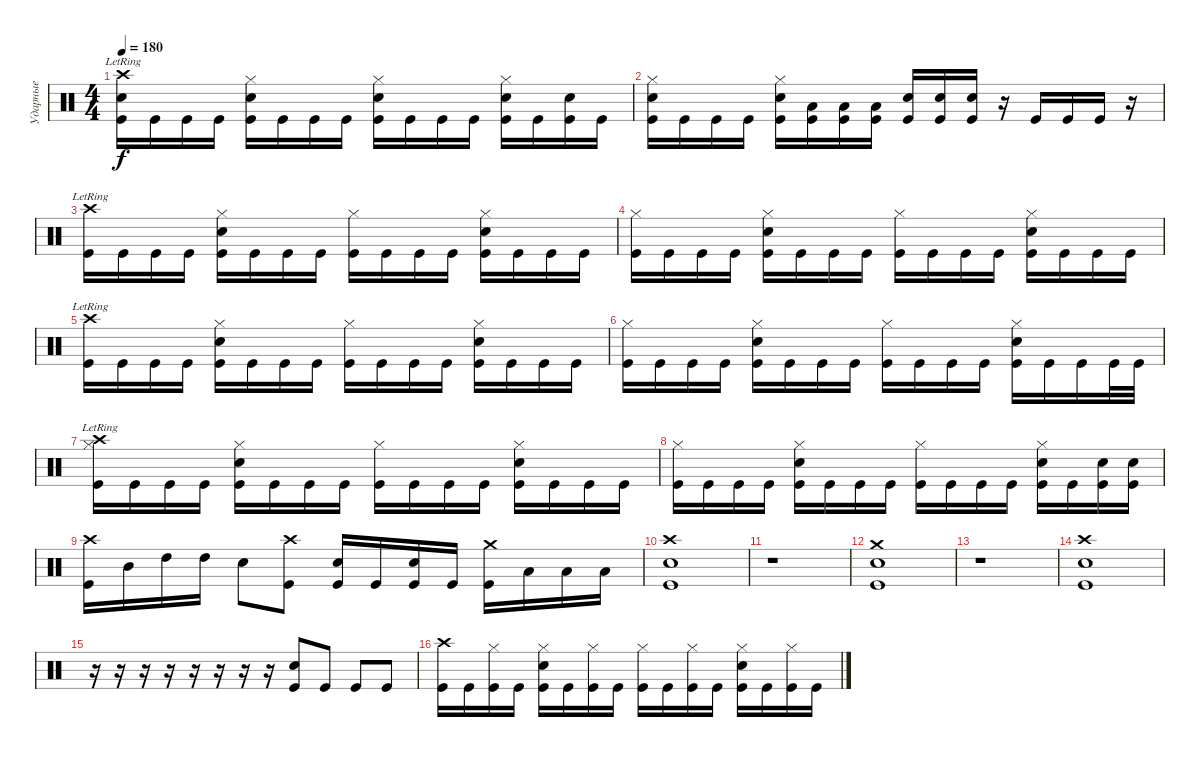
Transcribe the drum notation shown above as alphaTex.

\track ("Ударные" "Ударные") {instrument percussion}
\staff {score}
\articulation defaults
\ts (4 4)
\tempo 180
\clef neutral
\ks c
("Crash high (hit)"{lr} "Electric Snare (hit)" "Kick (hit)").16{dy f} "Kick (hit)".16 "Kick (hit)".16 "Kick (hit)".16 ("Hi-Hat (closed)" "Electric Snare (hit)" "Kick (hit)").16 "Kick (hit)".16 "Kick (hit)".16 "Kick (hit)".16 ("Hi-Hat (closed)" "Electric Snare (hit)" "Kick (hit)").16 "Kick (hit)".16 "Kick (hit)".16 "Kick (hit)".16 ("Hi-Hat (closed)" "Electric Snare (hit)" "Kick (hit)").16 "Kick (hit)".16 ("Electric Snare (hit)" "Kick (hit)").16 "Kick (hit)".16 |
("Hi-Hat (closed)" "Electric Snare (hit)" "Kick (hit)").16 "Kick (hit)".16 "Kick (hit)".16 "Kick (hit)".16 ("Hi-Hat (closed)" "Electric Snare (hit)" "Kick (hit)").16 ("Low Tom (hit)" "Kick (hit)").16 ("Low Tom (hit)" "Kick (hit)").16 ("Low Tom (hit)" "Kick (hit)").16 ("Electric Snare (hit)" "Kick (hit)").16 ("Electric Snare (hit)" "Kick (hit)").16 ("Electric Snare (hit)" "Kick (hit)").16 r.16 "Kick (hit)".16 "Kick (hit)".16 "Kick (hit)".16 r.16 |
("Crash high (hit)"{lr} "Kick (hit)").16 "Kick (hit)".16 "Kick (hit)".16 "Kick (hit)".16 ("Hi-Hat (closed)" "Electric Snare (hit)" "Kick (hit)").16 "Kick (hit)".16 "Kick (hit)".16 "Kick (hit)".16 ("Hi-Hat (closed)" "Kick (hit)").16 "Kick (hit)".16 "Kick (hit)".16 "Kick (hit)".16 ("Hi-Hat (closed)" "Electric Snare (hit)" "Kick (hit)").16 "Kick (hit)".16 "Kick (hit)".16 "Kick (hit)".16 |
("Hi-Hat (closed)" "Kick (hit)").16 "Kick (hit)".16 "Kick (hit)".16 "Kick (hit)".16 ("Hi-Hat (closed)" "Electric Snare (hit)" "Kick (hit)").16 "Kick (hit)".16 "Kick (hit)".16 "Kick (hit)".16 ("Hi-Hat (closed)" "Kick (hit)").16 "Kick (hit)".16 "Kick (hit)".16 "Kick (hit)".16 ("Hi-Hat (closed)" "Electric Snare (hit)" "Kick (hit)").16 "Kick (hit)".16 "Kick (hit)".16 "Kick (hit)".16 |
("Crash high (hit)"{lr} "Kick (hit)").16 "Kick (hit)".16 "Kick (hit)".16 "Kick (hit)".16 ("Hi-Hat (closed)" "Electric Snare (hit)" "Kick (hit)").16 "Kick (hit)".16 "Kick (hit)".16 "Kick (hit)".16 ("Hi-Hat (closed)" "Kick (hit)").16 "Kick (hit)".16 "Kick (hit)".16 "Kick (hit)".16 ("Hi-Hat (closed)" "Electric Snare (hit)" "Kick (hit)").16 "Kick (hit)".16 "Kick (hit)".16 "Kick (hit)".16 |
("Hi-Hat (closed)" "Kick (hit)").16 "Kick (hit)".16 "Kick (hit)".16 "Kick (hit)".16 ("Hi-Hat (closed)" "Electric Snare (hit)" "Kick (hit)").16 "Kick (hit)".16 "Kick (hit)".16 "Kick (hit)".16 ("Hi-Hat (closed)" "Kick (hit)").16 "Kick (hit)".16 "Kick (hit)".16 "Kick (hit)".16 ("Hi-Hat (closed)" "Electric Snare (hit)" "Kick (hit)").16 "Kick (hit)".16 "Kick (hit)".16 "Kick (hit)".32 "Kick (hit)".32 |
("Crash high (hit)"{lr} "Hi-Hat (closed)" "Kick (hit)").16 "Kick (hit)".16 "Kick (hit)".16 "Kick (hit)".16 ("Hi-Hat (closed)" "Electric Snare (hit)" "Kick (hit)").16 "Kick (hit)".16 "Kick (hit)".16 "Kick (hit)".16 ("Hi-Hat (closed)" "Kick (hit)").16 "Kick (hit)".16 "Kick (hit)".16 "Kick (hit)".16 ("Hi-Hat (closed)" "Electric Snare (hit)" "Kick (hit)").16 "Kick (hit)".16 "Kick (hit)".16 "Kick (hit)".16 |
("Hi-Hat (closed)" "Kick (hit)").16 "Kick (hit)".16 "Kick (hit)".16 "Kick (hit)".16 ("Hi-Hat (closed)" "Electric Snare (hit)" "Kick (hit)").16 "Kick (hit)".16 "Kick (hit)".16 "Kick (hit)".16 ("Hi-Hat (closed)" "Kick (hit)").16 "Kick (hit)".16 "Kick (hit)".16 "Kick (hit)".16 ("Hi-Hat (closed)" "Electric Snare (hit)" "Kick (hit)").16 "Kick (hit)".16 ("Electric Snare (hit)" "Kick (hit)").16 ("Electric Snare (hit)" "Kick (hit)").16 |
("Crash high (hit)" "Kick (hit)").16 "Mid Tom (hit)".16 "High Tom (hit)".16 "High Tom (hit)".16 "Electric Snare (hit)".8 ("Crash high (hit)" "Kick (hit)").8 ("Electric Snare (hit)" "Kick (hit)").16 "Kick (hit)".16 ("Electric Snare (hit)" "Kick (hit)").16 "Kick (hit)".16 ("Crash medium (hit)" "Kick (hit)").16 "Low Tom (hit)".16 "Low Tom (hit)".16 "Low Tom (hit)".16 |
("Crash high (hit)" "Electric Snare (hit)" "Kick (hit)").1 |
r.1 |
("Crash medium (hit)" "Electric Snare (hit)" "Kick (hit)").1 |
r.1 |
("Crash high (hit)" "Electric Snare (hit)" "Kick (hit)").1 |
r.16 r.16 r.16 r.16 r.16 r.16 r.16 r.16 ("Electric Snare (hit)" "Kick (hit)").8 "Kick (hit)".8 "Kick (hit)".8 "Kick (hit)".8 |
("Crash high (hit)" "Kick (hit)").16 "Kick (hit)".16 ("Hi-Hat (closed)" "Kick (hit)").16 "Kick (hit)".16 ("Hi-Hat (closed)" "Electric Snare (hit)" "Kick (hit)").16 "Kick (hit)".16 ("Hi-Hat (closed)" "Kick (hit)").16 "Kick (hit)".16 ("Hi-Hat (closed)" "Kick (hit)").16 "Kick (hit)".16 ("Hi-Hat (closed)" "Kick (hit)").16 "Kick (hit)".16 ("Hi-Hat (closed)" "Electric Snare (hit)" "Kick (hit)").16 "Kick (hit)".16 ("Hi-Hat (closed)" "Kick (hit)").16 "Kick (hit)".16
